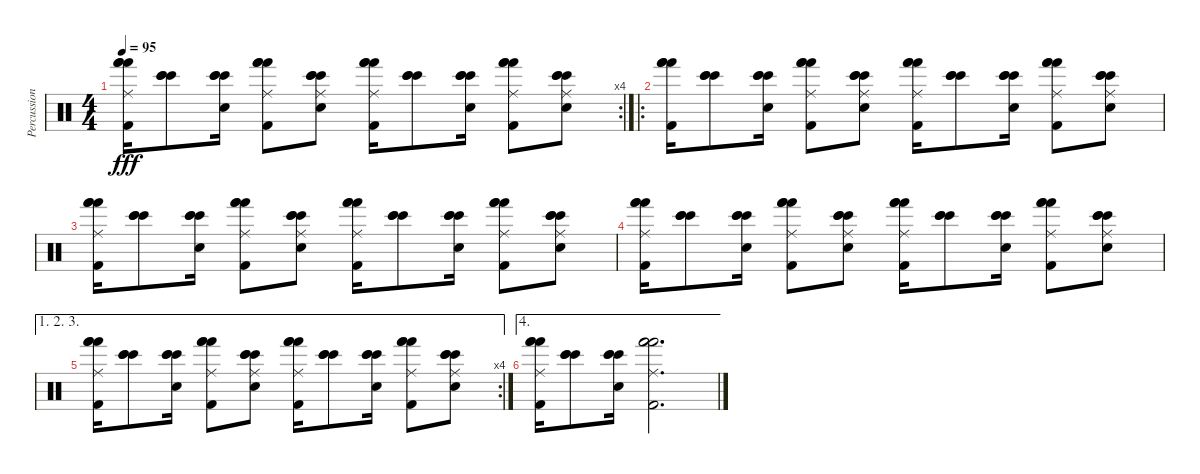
\track ("Percussions" "Percussion") {instrument percussion}
\staff {score}
\articulation defaults
\rc 4
\ts (4 4)
\tempo 95
\clef neutral
\ks c
("Hand (hit)" "Hand (hit)" "Hand (hit)" "Kick (hit) 2" "Ride (middle)").16{dy fff} ("Bongo High (hit)" "Bongo High (hit)" "Bongo High (hit)").8 ("Bongo High (hit)" "Bongo High (hit)" "Electric Snare (hit)" "Bongo High (hit)").16 ("Hand (hit)" "Hand (hit)" "Hand (hit)" "Kick (hit) 2" "Ride (middle)").8 ("Bongo High (hit)" "Bongo High (hit)" "Electric Snare (hit)" "Bongo High (hit)" "Ride (middle)").8 ("Hand (hit)" "Hand (hit)" "Hand (hit)" "Kick (hit) 2" "Ride (middle)").16 ("Bongo High (hit)" "Bongo High (hit)" "Bongo High (hit)").8 ("Bongo High (hit)" "Bongo High (hit)" "Electric Snare (hit)" "Bongo High (hit)").16 ("Hand (hit)" "Hand (hit)" "Hand (hit)" "Kick (hit) 2" "Ride (middle)").8 ("Bongo High (hit)" "Bongo High (hit)" "Electric Snare (hit)" "Bongo High (hit)" "Ride (middle)").8 |
\ro
("Hand (hit)" "Hand (hit)" "Hand (hit)" "Kick (hit) 2").16 ("Bongo High (hit)" "Bongo High (hit)" "Bongo High (hit)").8 ("Bongo High (hit)" "Bongo High (hit)" "Electric Snare (hit)" "Bongo High (hit)").16 ("Hand (hit)" "Hand (hit)" "Hand (hit)" "Kick (hit) 2" "Ride (middle)").8 ("Bongo High (hit)" "Bongo High (hit)" "Electric Snare (hit)" "Bongo High (hit)" "Ride (middle)").8 ("Hand (hit)" "Hand (hit)" "Hand (hit)" "Kick (hit) 2" "Ride (middle)").16 ("Bongo High (hit)" "Bongo High (hit)" "Bongo High (hit)").8 ("Bongo High (hit)" "Bongo High (hit)" "Electric Snare (hit)" "Bongo High (hit)").16 ("Hand (hit)" "Hand (hit)" "Hand (hit)" "Kick (hit) 2" "Ride (middle)").8 ("Bongo High (hit)" "Bongo High (hit)" "Electric Snare (hit)" "Bongo High (hit)" "Ride (middle)").8 |
("Hand (hit)" "Hand (hit)" "Hand (hit)" "Kick (hit) 2" "Ride (middle)").16 ("Bongo High (hit)" "Bongo High (hit)" "Bongo High (hit)").8 ("Bongo High (hit)" "Bongo High (hit)" "Electric Snare (hit)" "Bongo High (hit)").16 ("Hand (hit)" "Hand (hit)" "Hand (hit)" "Kick (hit) 2" "Ride (middle)").8 ("Bongo High (hit)" "Bongo High (hit)" "Electric Snare (hit)" "Bongo High (hit)" "Ride (middle)").8 ("Hand (hit)" "Hand (hit)" "Hand (hit)" "Kick (hit) 2" "Ride (middle)").16 ("Bongo High (hit)" "Bongo High (hit)" "Bongo High (hit)").8 ("Bongo High (hit)" "Bongo High (hit)" "Electric Snare (hit)" "Bongo High (hit)").16 ("Hand (hit)" "Hand (hit)" "Hand (hit)" "Kick (hit) 2" "Ride (middle)").8 ("Bongo High (hit)" "Bongo High (hit)" "Electric Snare (hit)" "Bongo High (hit)" "Ride (middle)").8 |
("Hand (hit)" "Hand (hit)" "Hand (hit)" "Kick (hit) 2" "Ride (middle)").16 ("Bongo High (hit)" "Bongo High (hit)" "Bongo High (hit)").8 ("Bongo High (hit)" "Bongo High (hit)" "Electric Snare (hit)" "Bongo High (hit)").16 ("Hand (hit)" "Hand (hit)" "Hand (hit)" "Kick (hit) 2" "Ride (middle)").8 ("Bongo High (hit)" "Bongo High (hit)" "Electric Snare (hit)" "Bongo High (hit)" "Ride (middle)").8 ("Hand (hit)" "Hand (hit)" "Hand (hit)" "Kick (hit) 2" "Ride (middle)").16 ("Bongo High (hit)" "Bongo High (hit)" "Bongo High (hit)").8 ("Bongo High (hit)" "Bongo High (hit)" "Electric Snare (hit)" "Bongo High (hit)").16 ("Hand (hit)" "Hand (hit)" "Hand (hit)" "Kick (hit) 2" "Ride (middle)").8 ("Bongo High (hit)" "Bongo High (hit)" "Electric Snare (hit)" "Bongo High (hit)" "Ride (middle)").8 |
\ae (1 2 3)
\rc 4
("Hand (hit)" "Hand (hit)" "Hand (hit)" "Kick (hit) 2" "Ride (middle)").16 ("Bongo High (hit)" "Bongo High (hit)" "Bongo High (hit)").8 ("Bongo High (hit)" "Bongo High (hit)" "Electric Snare (hit)" "Bongo High (hit)").16 ("Hand (hit)" "Hand (hit)" "Hand (hit)" "Kick (hit) 2" "Ride (middle)").8 ("Bongo High (hit)" "Bongo High (hit)" "Electric Snare (hit)" "Bongo High (hit)" "Ride (middle)").8 ("Hand (hit)" "Hand (hit)" "Hand (hit)" "Kick (hit) 2" "Ride (middle)").16 ("Bongo High (hit)" "Bongo High (hit)" "Bongo High (hit)").8 ("Bongo High (hit)" "Bongo High (hit)" "Electric Snare (hit)" "Bongo High (hit)").16 ("Hand (hit)" "Hand (hit)" "Hand (hit)" "Kick (hit) 2" "Ride (middle)").8 ("Bongo High (hit)" "Bongo High (hit)" "Electric Snare (hit)" "Bongo High (hit)" "Ride (middle)").8 |
\ae 4
("Hand (hit)" "Hand (hit)" "Hand (hit)" "Kick (hit) 2" "Ride (middle)").16 ("Bongo High (hit)" "Bongo High (hit)" "Bongo High (hit)").8 ("Bongo High (hit)" "Bongo High (hit)" "Electric Snare (hit)" "Bongo High (hit)").16 ("Hand (hit)" "Hand (hit)" "Hand (hit)" "Kick (hit) 2" "Ride (middle)").2{d}
